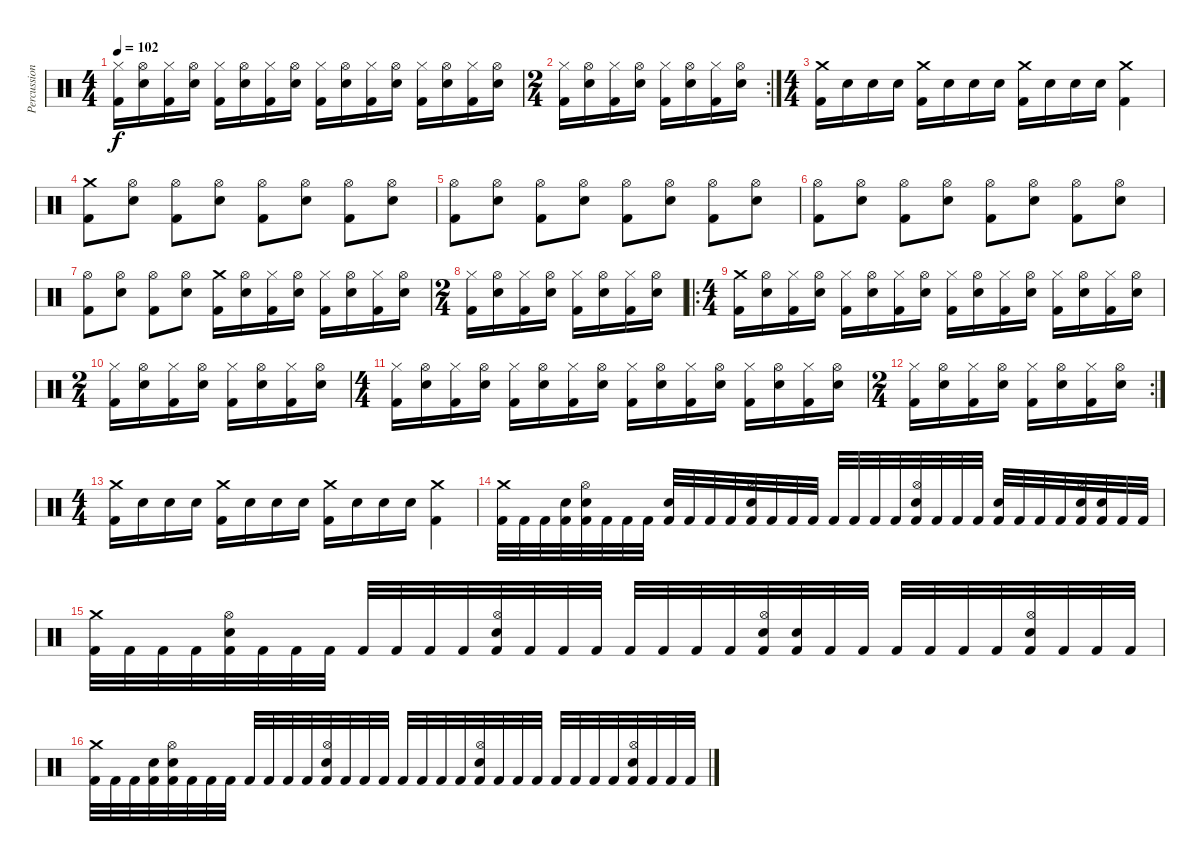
\track ("Percussion" "Percussion") {instrument percussion}
\staff {score}
\articulation defaults
\ts (4 4)
\tempo 102
\clef neutral
\ks c
("Hi-Hat (closed)" "Kick (hit) 2").16{dy f} ("Hi-Hat (open)" "Electric Snare (hit)").16 ("Hi-Hat (closed)" "Kick (hit) 2").16 ("Hi-Hat (open)" "Electric Snare (hit)").16 ("Hi-Hat (closed)" "Kick (hit) 2").16 ("Hi-Hat (open)" "Electric Snare (hit)").16 ("Hi-Hat (closed)" "Kick (hit) 2").16 ("Hi-Hat (open)" "Electric Snare (hit)").16 ("Hi-Hat (closed)" "Kick (hit) 2").16 ("Hi-Hat (open)" "Electric Snare (hit)").16 ("Hi-Hat (closed)" "Kick (hit) 2").16 ("Hi-Hat (open)" "Electric Snare (hit)").16 ("Hi-Hat (closed)" "Kick (hit) 2").16 ("Hi-Hat (open)" "Electric Snare (hit)").16 ("Hi-Hat (closed)" "Kick (hit) 2").16 ("Hi-Hat (open)" "Electric Snare (hit)").16 |
\rc 2
\ts (2 4)
("Hi-Hat (closed)" "Kick (hit) 2").16 ("Hi-Hat (open)" "Electric Snare (hit)").16 ("Hi-Hat (closed)" "Kick (hit) 2").16 ("Hi-Hat (open)" "Electric Snare (hit)").16 ("Hi-Hat (closed)" "Kick (hit) 2").16 ("Hi-Hat (open)" "Electric Snare (hit)").16 ("Hi-Hat (closed)" "Kick (hit) 2").16 ("Hi-Hat (open)" "Electric Snare (hit)").16 |
\ts (4 4)
("Crash medium (hit)" "Kick (hit) 2").16 "Electric Snare (hit)".16 "Electric Snare (hit)".16 "Electric Snare (hit)".16 ("Crash medium (hit)" "Kick (hit) 2").16 "Electric Snare (hit)".16 "Electric Snare (hit)".16 "Electric Snare (hit)".16 ("Crash medium (hit)" "Kick (hit) 2").16 "Electric Snare (hit)".16 "Electric Snare (hit)".16 "Electric Snare (hit)".16 ("Crash medium (hit)" "Kick (hit) 2").4 |
("Crash medium (hit)" "Kick (hit) 2").8 ("Hi-Hat (open)" "Electric Snare (hit)").8 ("Hi-Hat (open)" "Kick (hit) 2").8 ("Hi-Hat (open)" "Electric Snare (hit)").8 ("Hi-Hat (open)" "Kick (hit) 2").8 ("Hi-Hat (open)" "Electric Snare (hit)").8 ("Hi-Hat (open)" "Kick (hit) 2").8 ("Hi-Hat (open)" "Electric Snare (hit)").8 |
("Hi-Hat (open)" "Kick (hit) 2").8 ("Hi-Hat (open)" "Electric Snare (hit)").8 ("Hi-Hat (open)" "Kick (hit) 2").8 ("Hi-Hat (open)" "Electric Snare (hit)").8 ("Hi-Hat (open)" "Kick (hit) 2").8 ("Hi-Hat (open)" "Electric Snare (hit)").8 ("Hi-Hat (open)" "Kick (hit) 2").8 ("Hi-Hat (open)" "Electric Snare (hit)").8 |
("Hi-Hat (open)" "Kick (hit) 2").8 ("Hi-Hat (open)" "Electric Snare (hit)").8 ("Hi-Hat (open)" "Kick (hit) 2").8 ("Hi-Hat (open)" "Electric Snare (hit)").8 ("Hi-Hat (open)" "Kick (hit) 2").8 ("Hi-Hat (open)" "Electric Snare (hit)").8 ("Hi-Hat (open)" "Kick (hit) 2").8 ("Hi-Hat (open)" "Electric Snare (hit)").8 |
("Hi-Hat (open)" "Kick (hit) 2").8 ("Hi-Hat (open)" "Electric Snare (hit)").8 ("Hi-Hat (open)" "Kick (hit) 2").8 ("Hi-Hat (open)" "Electric Snare (hit)").8 ("Crash medium (hit)" "Kick (hit) 2").16 ("Hi-Hat (open)" "Electric Snare (hit)").16 ("Hi-Hat (closed)" "Kick (hit) 2").16 ("Hi-Hat (open)" "Electric Snare (hit)").16 ("Hi-Hat (closed)" "Kick (hit) 2").16 ("Hi-Hat (open)" "Electric Snare (hit)").16 ("Hi-Hat (closed)" "Kick (hit) 2").16 ("Hi-Hat (open)" "Electric Snare (hit)").16 |
\ts (2 4)
("Hi-Hat (closed)" "Kick (hit) 2").16 ("Hi-Hat (open)" "Electric Snare (hit)").16 ("Hi-Hat (closed)" "Kick (hit) 2").16 ("Hi-Hat (open)" "Electric Snare (hit)").16 ("Hi-Hat (closed)" "Kick (hit) 2").16 ("Hi-Hat (open)" "Electric Snare (hit)").16 ("Hi-Hat (closed)" "Kick (hit) 2").16 ("Hi-Hat (open)" "Electric Snare (hit)").16 |
\ro
\ts (4 4)
("Crash medium (hit)" "Kick (hit) 2").16 ("Hi-Hat (open)" "Electric Snare (hit)").16 ("Hi-Hat (closed)" "Kick (hit) 2").16 ("Hi-Hat (open)" "Electric Snare (hit)").16 ("Hi-Hat (closed)" "Kick (hit) 2").16 ("Hi-Hat (open)" "Electric Snare (hit)").16 ("Hi-Hat (closed)" "Kick (hit) 2").16 ("Hi-Hat (open)" "Electric Snare (hit)").16 ("Hi-Hat (closed)" "Kick (hit) 2").16 ("Hi-Hat (open)" "Electric Snare (hit)").16 ("Hi-Hat (closed)" "Kick (hit) 2").16 ("Hi-Hat (open)" "Electric Snare (hit)").16 ("Hi-Hat (closed)" "Kick (hit) 2").16 ("Hi-Hat (open)" "Electric Snare (hit)").16 ("Hi-Hat (closed)" "Kick (hit) 2").16 ("Hi-Hat (open)" "Electric Snare (hit)").16 |
\ts (2 4)
("Hi-Hat (closed)" "Kick (hit) 2").16 ("Hi-Hat (open)" "Electric Snare (hit)").16 ("Hi-Hat (closed)" "Kick (hit) 2").16 ("Hi-Hat (open)" "Electric Snare (hit)").16 ("Hi-Hat (closed)" "Kick (hit) 2").16 ("Hi-Hat (open)" "Electric Snare (hit)").16 ("Hi-Hat (closed)" "Kick (hit) 2").16 ("Hi-Hat (open)" "Electric Snare (hit)").16 |
\ts (4 4)
("Hi-Hat (closed)" "Kick (hit) 2").16 ("Hi-Hat (open)" "Electric Snare (hit)").16 ("Hi-Hat (closed)" "Kick (hit) 2").16 ("Hi-Hat (open)" "Electric Snare (hit)").16 ("Hi-Hat (closed)" "Kick (hit) 2").16 ("Hi-Hat (open)" "Electric Snare (hit)").16 ("Hi-Hat (closed)" "Kick (hit) 2").16 ("Hi-Hat (open)" "Electric Snare (hit)").16 ("Hi-Hat (closed)" "Kick (hit) 2").16 ("Hi-Hat (open)" "Electric Snare (hit)").16 ("Hi-Hat (closed)" "Kick (hit) 2").16 ("Hi-Hat (open)" "Electric Snare (hit)").16 ("Hi-Hat (closed)" "Kick (hit) 2").16 ("Hi-Hat (open)" "Electric Snare (hit)").16 ("Hi-Hat (closed)" "Kick (hit) 2").16 ("Hi-Hat (open)" "Electric Snare (hit)").16 |
\rc 2
\ts (2 4)
("Hi-Hat (closed)" "Kick (hit) 2").16 ("Hi-Hat (open)" "Electric Snare (hit)").16 ("Hi-Hat (closed)" "Kick (hit) 2").16 ("Hi-Hat (open)" "Electric Snare (hit)").16 ("Hi-Hat (closed)" "Kick (hit) 2").16 ("Hi-Hat (open)" "Electric Snare (hit)").16 ("Hi-Hat (closed)" "Kick (hit) 2").16 ("Hi-Hat (open)" "Electric Snare (hit)").16 |
\ts (4 4)
("Crash medium (hit)" "Kick (hit) 2").16 "Electric Snare (hit)".16 "Electric Snare (hit)".16 "Electric Snare (hit)".16 ("Crash medium (hit)" "Kick (hit) 2").16 "Electric Snare (hit)".16 "Electric Snare (hit)".16 "Electric Snare (hit)".16 ("Crash medium (hit)" "Kick (hit) 2").16 "Electric Snare (hit)".16 "Electric Snare (hit)".16 "Electric Snare (hit)".16 ("Crash medium (hit)" "Kick (hit) 2").4 |
("Crash medium (hit)" "Kick (hit) 2").32 "Kick (hit) 2".32 "Kick (hit) 2".32 ("Snare (hit)" "Kick (hit) 2").32 ("Hi-Hat (open)" "Electric Snare (hit)" "Kick (hit) 2").32 "Kick (hit) 2".32 "Kick (hit) 2".32 "Kick (hit) 2".32 ("Snare (hit)" "Kick (hit) 2").32 "Kick (hit) 2".32 "Kick (hit) 2".32 "Kick (hit) 2".32 ("Hi-Hat (open)" "Electric Snare (hit)" "Kick (hit) 2").32 "Kick (hit) 2".32 "Kick (hit) 2".32 "Kick (hit) 2".32 "Kick (hit) 2".32 "Kick (hit) 2".32 "Kick (hit) 2".32 "Kick (hit) 2".32 ("Hi-Hat (open)" "Electric Snare (hit)" "Kick (hit) 2").32 "Kick (hit) 2".32 "Kick (hit) 2".32 "Kick (hit) 2".32 ("Snare (hit)" "Kick (hit) 2").32 "Kick (hit) 2".32 "Kick (hit) 2".32 "Kick (hit) 2".32 ("Hi-Hat (open)" "Electric Snare (hit)" "Kick (hit) 2").32 ("Snare (hit)" "Kick (hit) 2").32 "Kick (hit) 2".32 "Kick (hit) 2".32 |
("Crash medium (hit)" "Kick (hit) 2").32 "Kick (hit) 2".32 "Kick (hit) 2".32 "Kick (hit) 2".32 ("Hi-Hat (open)" "Electric Snare (hit)" "Kick (hit) 2").32 "Kick (hit) 2".32 "Kick (hit) 2".32 "Kick (hit) 2".32 "Kick (hit) 2".32 "Kick (hit) 2".32 "Kick (hit) 2".32 "Kick (hit) 2".32 ("Hi-Hat (open)" "Electric Snare (hit)" "Kick (hit) 2").32 "Kick (hit) 2".32 "Kick (hit) 2".32 "Kick (hit) 2".32 "Kick (hit) 2".32 "Kick (hit) 2".32 "Kick (hit) 2".32 "Kick (hit) 2".32 ("Hi-Hat (open)" "Electric Snare (hit)" "Kick (hit) 2").32 ("Snare (hit)" "Kick (hit) 2").32 "Kick (hit) 2".32 "Kick (hit) 2".32 "Kick (hit) 2".32 "Kick (hit) 2".32 "Kick (hit) 2".32 "Kick (hit) 2".32 ("Hi-Hat (open)" "Electric Snare (hit)" "Kick (hit) 2").32 "Kick (hit) 2".32 "Kick (hit) 2".32 "Kick (hit) 2".32 |
("Crash medium (hit)" "Kick (hit) 2").32 "Kick (hit) 2".32 "Kick (hit) 2".32 ("Snare (hit)" "Kick (hit) 2").32 ("Hi-Hat (open)" "Electric Snare (hit)" "Kick (hit) 2").32 "Kick (hit) 2".32 "Kick (hit) 2".32 "Kick (hit) 2".32 "Kick (hit) 2".32 "Kick (hit) 2".32 "Kick (hit) 2".32 "Kick (hit) 2".32 ("Hi-Hat (open)" "Electric Snare (hit)" "Kick (hit) 2").32 "Kick (hit) 2".32 "Kick (hit) 2".32 "Kick (hit) 2".32 "Kick (hit) 2".32 "Kick (hit) 2".32 "Kick (hit) 2".32 "Kick (hit) 2".32 ("Hi-Hat (open)" "Electric Snare (hit)" "Kick (hit) 2").32 "Kick (hit) 2".32 "Kick (hit) 2".32 "Kick (hit) 2".32 "Kick (hit) 2".32 "Kick (hit) 2".32 "Kick (hit) 2".32 "Kick (hit) 2".32 ("Hi-Hat (open)" "Electric Snare (hit)" "Kick (hit) 2").32 "Kick (hit) 2".32 "Kick (hit) 2".32 "Kick (hit) 2".32
